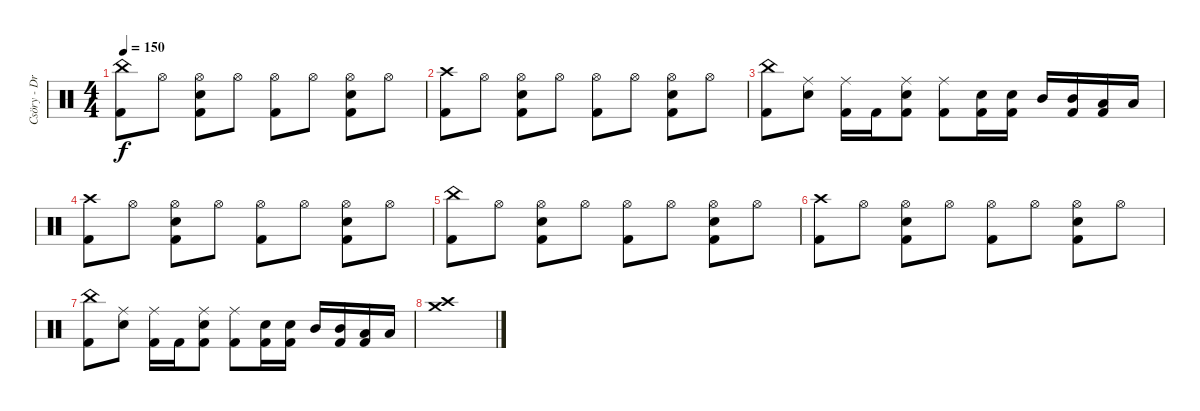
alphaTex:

\track ("Csöry - DrumZ" "Csöry - Dr") {instrument percussion}
\staff {score}
\articulation defaults
\ts (4 4)
\tempo 150
\clef neutral
\ks c
("China (hit)" "Kick (hit) 2").8{dy f} "Hi-Hat (open)".8 ("Hi-Hat (open)" "Snare (hit) 2" "Kick (hit) 2").8 "Hi-Hat (open)".8 ("Hi-Hat (open)" "Kick (hit) 2").8 "Hi-Hat (open)".8 ("Hi-Hat (open)" "Snare (hit) 2" "Kick (hit) 2").8 "Hi-Hat (open)".8 |
("Crash high (hit)" "Kick (hit) 2").8 "Hi-Hat (open)".8 ("Hi-Hat (open)" "Snare (hit) 2" "Kick (hit) 2").8 "Hi-Hat (open)".8 ("Hi-Hat (open)" "Kick (hit) 2").8 "Hi-Hat (open)".8 ("Hi-Hat (open)" "Snare (hit) 2" "Kick (hit) 2").8 "Hi-Hat (open)".8 |
("China (hit)" "Kick (hit) 2").8 ("Ride (middle)" "Snare (hit) 2").8 ("Ride (middle)" "Kick (hit) 2").16 "Kick (hit) 2".16 ("Ride (middle)" "Snare (hit) 2" "Kick (hit) 2").8 ("Ride (middle)" "Kick (hit) 2").8 ("Snare (hit) 2" "Kick (hit) 2").16 ("Snare (hit) 2" "Kick (hit) 2").16 "Mid Tom (hit)".16 ("Mid Tom (hit)" "Kick (hit) 2").16 ("Low Tom (hit)" "Kick (hit) 2").16 "Low Floor Tom (hit)".16 |
("Crash high (hit)" "Kick (hit) 2").8 "Hi-Hat (open)".8 ("Hi-Hat (open)" "Snare (hit) 2" "Kick (hit) 2").8 "Hi-Hat (open)".8 ("Hi-Hat (open)" "Kick (hit) 2").8 "Hi-Hat (open)".8 ("Hi-Hat (open)" "Snare (hit) 2" "Kick (hit) 2").8 "Hi-Hat (open)".8 |
("China (hit)" "Kick (hit) 2").8 "Hi-Hat (open)".8 ("Hi-Hat (open)" "Snare (hit) 2" "Kick (hit) 2").8 "Hi-Hat (open)".8 ("Hi-Hat (open)" "Kick (hit) 2").8 "Hi-Hat (open)".8 ("Hi-Hat (open)" "Snare (hit) 2" "Kick (hit) 2").8 "Hi-Hat (open)".8 |
("Crash high (hit)" "Kick (hit) 2").8 "Hi-Hat (open)".8 ("Hi-Hat (open)" "Snare (hit) 2" "Kick (hit) 2").8 "Hi-Hat (open)".8 ("Hi-Hat (open)" "Kick (hit) 2").8 "Hi-Hat (open)".8 ("Hi-Hat (open)" "Snare (hit) 2" "Kick (hit) 2").8 "Hi-Hat (open)".8 |
("China (hit)" "Kick (hit) 2").8 ("Ride (middle)" "Snare (hit) 2").8 ("Ride (middle)" "Kick (hit) 2").16 "Kick (hit) 2".16 ("Ride (middle)" "Snare (hit) 2" "Kick (hit) 2").8 ("Ride (middle)" "Kick (hit) 2").8 ("Snare (hit) 2" "Kick (hit) 2").16 ("Snare (hit) 2" "Kick (hit) 2").16 "Mid Tom (hit)".16 ("Mid Tom (hit)" "Kick (hit) 2").16 ("Low Tom (hit)" "Kick (hit) 2").16 "Low Floor Tom (hit)".16 |
("Crash high (hit)" "Crash medium (hit)").1
